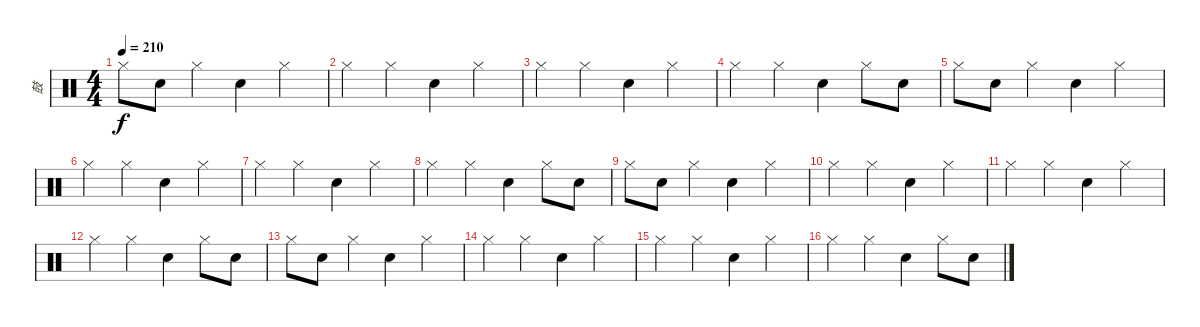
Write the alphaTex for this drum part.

\track ("鼓" "鼓") {instrument percussion}
\staff {score}
\articulation defaults
\ts (4 4)
\tempo 210
\clef neutral
\ks c "Hi-Hat (closed)".8{dy f} "Electric Snare (hit)".8 "Hi-Hat (closed)".4 "Electric Snare (hit)".4 "Hi-Hat (closed)".4
|
"Hi-Hat (closed)".4 "Hi-Hat (closed)".4 "Electric Snare (hit)".4 "Hi-Hat (closed)".4 |
"Hi-Hat (closed)".4 "Hi-Hat (closed)".4 "Electric Snare (hit)".4 "Hi-Hat (closed)".4 |
"Hi-Hat (closed)".4 "Hi-Hat (closed)".4 "Electric Snare (hit)".4 "Hi-Hat (closed)".8 "Electric Snare (hit)".8 |
"Hi-Hat (closed)".8 "Electric Snare (hit)".8 "Hi-Hat (closed)".4 "Electric Snare (hit)".4 "Hi-Hat (closed)".4 |
"Hi-Hat (closed)".4 "Hi-Hat (closed)".4 "Electric Snare (hit)".4 "Hi-Hat (closed)".4 |
"Hi-Hat (closed)".4 "Hi-Hat (closed)".4 "Electric Snare (hit)".4 "Hi-Hat (closed)".4 |
"Hi-Hat (closed)".4 "Hi-Hat (closed)".4 "Electric Snare (hit)".4 "Hi-Hat (closed)".8 "Electric Snare (hit)".8 |
"Hi-Hat (closed)".8 "Electric Snare (hit)".8 "Hi-Hat (closed)".4 "Electric Snare (hit)".4 "Hi-Hat (closed)".4 |
"Hi-Hat (closed)".4 "Hi-Hat (closed)".4 "Electric Snare (hit)".4 "Hi-Hat (closed)".4 |
"Hi-Hat (closed)".4 "Hi-Hat (closed)".4 "Electric Snare (hit)".4 "Hi-Hat (closed)".4 |
"Hi-Hat (closed)".4 "Hi-Hat (closed)".4 "Electric Snare (hit)".4 "Hi-Hat (closed)".8 "Electric Snare (hit)".8 |
"Hi-Hat (closed)".8 "Electric Snare (hit)".8 "Hi-Hat (closed)".4 "Electric Snare (hit)".4 "Hi-Hat (closed)".4 |
"Hi-Hat (closed)".4 "Hi-Hat (closed)".4 "Electric Snare (hit)".4 "Hi-Hat (closed)".4 |
"Hi-Hat (closed)".4 "Hi-Hat (closed)".4 "Electric Snare (hit)".4 "Hi-Hat (closed)".4 |
"Hi-Hat (closed)".4 "Hi-Hat (closed)".4 "Electric Snare (hit)".4 "Hi-Hat (closed)".8 "Electric Snare (hit)".8
